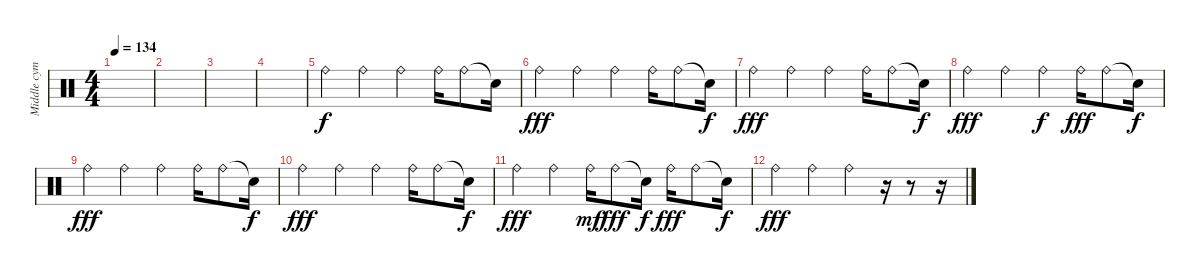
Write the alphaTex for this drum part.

\track ("Middle cymbol" "Middle cym") {instrument percussion}
\staff {score}
\articulation defaults
\ts (4 4)
\tempo 134
\clef neutral
\ks c
|
|
|
|
"Ride (bell)".4 "Ride (bell)".4 "Ride (bell)".4 "Ride (bell)".16 "Ride (bell)".8 "Snare (hit)"{t}.16{dy f} |
"Ride (bell)".4{dy fff} "Ride (bell)".4 "Ride (bell)".4 "Ride (bell)".16 "Ride (bell)".8 "Snare (hit)"{t}.16{dy f} |
"Ride (bell)".4{dy fff} "Ride (bell)".4 "Ride (bell)".4 "Ride (bell)".16 "Ride (bell)".8 "Snare (hit)"{t}.16{dy f} |
"Ride (bell)".4{dy fff} "Ride (bell)".4 "Ride (bell)".4{dy f} "Ride (bell)".16{dy fff} "Ride (bell)".8 "Snare (hit)"{t}.16{dy f} |
"Ride (bell)".4{dy fff} "Ride (bell)".4 "Ride (bell)".4 "Ride (bell)".16 "Ride (bell)".8 "Snare (hit)"{t}.16{dy f} |
"Ride (bell)".4{dy fff} "Ride (bell)".4 "Ride (bell)".4 "Ride (bell)".16 "Ride (bell)".8 "Snare (hit)"{t}.16{dy f} |
"Ride (bell)".4{dy fff} "Ride (bell)".4 "Ride (bell)".16{dy mf} "Ride (bell)".8{dy fff} "Snare (hit)"{t}.16{dy f} "Ride (bell)".16{dy fff} "Ride (bell)".8 "Snare (hit)"{t}.16{dy f} |
"Ride (bell)".4{dy fff} "Ride (bell)".4 "Ride (bell)".4 r.16 r.8 r.16
